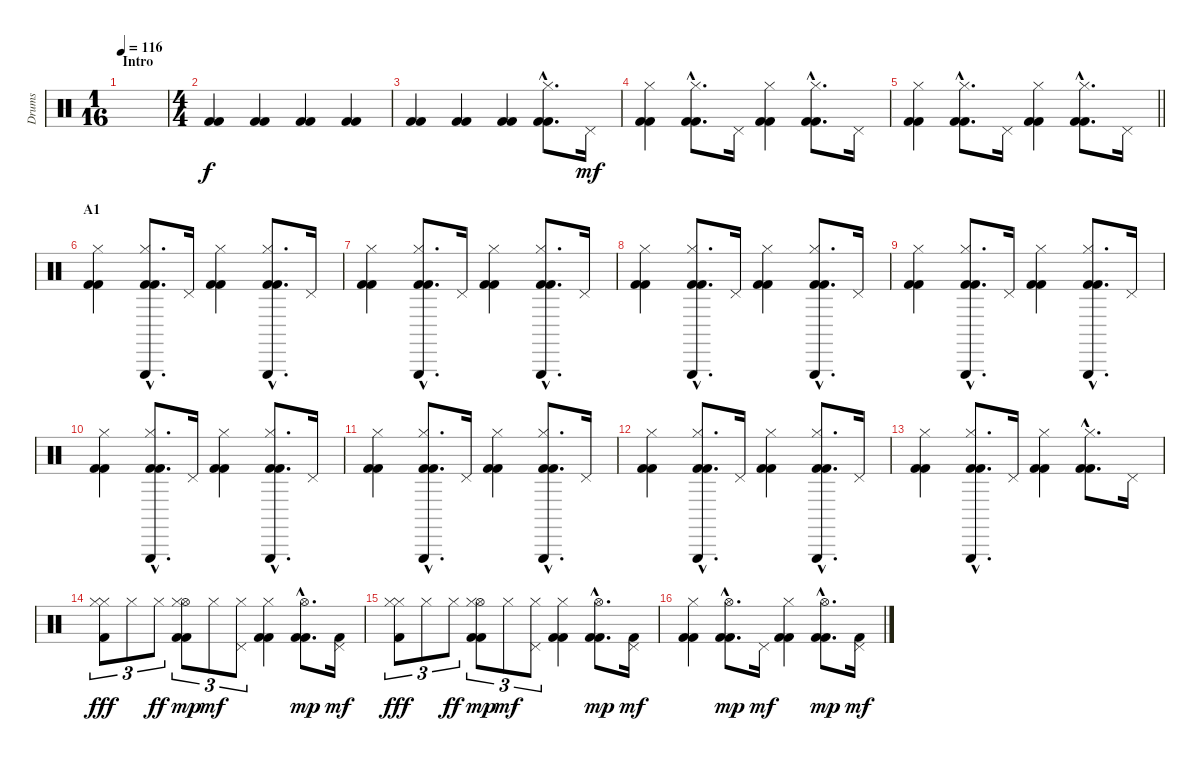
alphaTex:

\track ("Drums" "Drums") {instrument percussion}
\staff {score}
\articulation defaults
\ts (1 16)
\section ("" "Intro")
\tempo 116
\clef neutral
\ks aminor
|
\ts (4 4)
("Kick (hit) 2" "Kick (hit) 2").4 ("Kick (hit) 2" "Kick (hit) 2").4 ("Kick (hit) 2" "Kick (hit) 2").4 ("Kick (hit) 2" "Kick (hit) 2").4 |
("Kick (hit) 2" "Kick (hit) 2").4 ("Kick (hit) 2" "Kick (hit) 2").4 ("Kick (hit) 2" "Kick (hit) 2").4 ("Hi-Hat (closed)"{hac} "Kick (hit) 2"{hac} "Kick (hit) 2"{hac}).8{d} "Pedal Hi-Hat (hit)".16{dy mf} |
("Hi-Hat (closed)" "Kick (hit) 2" "Kick (hit) 2").4 ("Hi-Hat (closed)"{hac} "Kick (hit) 2"{hac} "Kick (hit) 2"{hac}).8{d} "Pedal Hi-Hat (hit)".16 ("Hi-Hat (closed)" "Kick (hit) 2" "Kick (hit) 2").4 ("Hi-Hat (closed)"{hac} "Kick (hit) 2"{hac} "Kick (hit) 2"{hac}).8{d} "Pedal Hi-Hat (hit)".16 |
\barLineRight lightlight
("Hi-Hat (closed)" "Kick (hit) 2" "Kick (hit) 2").4 ("Hi-Hat (closed)"{hac} "Kick (hit) 2"{hac} "Kick (hit) 2"{hac}).8{d} "Pedal Hi-Hat (hit)".16 ("Hi-Hat (closed)" "Kick (hit) 2" "Kick (hit) 2").4 ("Hi-Hat (closed)"{hac} "Kick (hit) 2"{hac} "Kick (hit) 2"{hac}).8{d} "Pedal Hi-Hat (hit)".16 |
\section ("" "A1")
("Hi-Hat (closed)" "Kick (hit) 2" "Kick (hit) 2").4 ("Hi-Hat (closed)"{hac} "Triangle (hit)"{hac} "Kick (hit) 2"{hac} "Kick (hit) 2"{hac}).8{d} "Pedal Hi-Hat (hit)".16 ("Hi-Hat (closed)" "Kick (hit) 2" "Kick (hit) 2").4 ("Hi-Hat (closed)"{hac} "Triangle (hit)"{hac} "Kick (hit) 2"{hac} "Kick (hit) 2"{hac}).8{d} "Pedal Hi-Hat (hit)".16 |
("Hi-Hat (closed)" "Kick (hit) 2" "Kick (hit) 2").4 ("Hi-Hat (closed)"{hac} "Triangle (hit)"{hac} "Kick (hit) 2"{hac} "Kick (hit) 2"{hac}).8{d} "Pedal Hi-Hat (hit)".16 ("Hi-Hat (closed)" "Kick (hit) 2" "Kick (hit) 2").4 ("Hi-Hat (closed)"{hac} "Triangle (hit)"{hac} "Kick (hit) 2"{hac} "Kick (hit) 2"{hac}).8{d} "Pedal Hi-Hat (hit)".16 |
("Hi-Hat (closed)" "Kick (hit) 2" "Kick (hit) 2").4 ("Hi-Hat (closed)"{hac} "Triangle (hit)"{hac} "Kick (hit) 2"{hac} "Kick (hit) 2"{hac}).8{d} "Pedal Hi-Hat (hit)".16 ("Hi-Hat (closed)" "Kick (hit) 2" "Kick (hit) 2").4 ("Hi-Hat (closed)"{hac} "Triangle (hit)"{hac} "Kick (hit) 2"{hac} "Kick (hit) 2"{hac}).8{d} "Pedal Hi-Hat (hit)".16 |
("Hi-Hat (closed)" "Kick (hit) 2" "Kick (hit) 2").4 ("Hi-Hat (closed)"{hac} "Triangle (hit)"{hac} "Kick (hit) 2"{hac} "Kick (hit) 2"{hac}).8{d} "Pedal Hi-Hat (hit)".16 ("Hi-Hat (closed)" "Kick (hit) 2" "Kick (hit) 2").4 ("Hi-Hat (closed)"{hac} "Triangle (hit)"{hac} "Kick (hit) 2"{hac} "Kick (hit) 2"{hac}).8{d} "Pedal Hi-Hat (hit)".16 |
("Hi-Hat (closed)" "Kick (hit) 2" "Kick (hit) 2").4 ("Hi-Hat (closed)"{hac} "Triangle (hit)"{hac} "Kick (hit) 2"{hac} "Kick (hit) 2"{hac}).8{d} "Pedal Hi-Hat (hit)".16 ("Hi-Hat (closed)" "Kick (hit) 2" "Kick (hit) 2").4 ("Hi-Hat (closed)"{hac} "Triangle (hit)"{hac} "Kick (hit) 2"{hac} "Kick (hit) 2"{hac}).8{d} "Pedal Hi-Hat (hit)".16 |
("Hi-Hat (closed)" "Kick (hit) 2" "Kick (hit) 2").4 ("Hi-Hat (closed)"{hac} "Triangle (hit)"{hac} "Kick (hit) 2"{hac} "Kick (hit) 2"{hac}).8{d} "Pedal Hi-Hat (hit)".16 ("Hi-Hat (closed)" "Kick (hit) 2" "Kick (hit) 2").4 ("Hi-Hat (closed)"{hac} "Triangle (hit)"{hac} "Kick (hit) 2"{hac} "Kick (hit) 2"{hac}).8{d} "Pedal Hi-Hat (hit)".16 |
("Hi-Hat (closed)" "Kick (hit) 2" "Kick (hit) 2").4 ("Hi-Hat (closed)"{hac} "Triangle (hit)"{hac} "Kick (hit) 2"{hac} "Kick (hit) 2"{hac}).8{d} "Pedal Hi-Hat (hit)".16 ("Hi-Hat (closed)" "Kick (hit) 2" "Kick (hit) 2").4 ("Hi-Hat (closed)"{hac} "Triangle (hit)"{hac} "Kick (hit) 2"{hac} "Kick (hit) 2"{hac}).8{d} "Pedal Hi-Hat (hit)".16 |
("Hi-Hat (closed)" "Kick (hit) 2" "Kick (hit) 2").4 ("Hi-Hat (closed)"{hac} "Triangle (hit)"{hac} "Kick (hit) 2"{hac} "Kick (hit) 2"{hac}).8{d} "Pedal Hi-Hat (hit)".16 ("Hi-Hat (closed)" "Kick (hit) 2" "Kick (hit) 2").4 ("Hi-Hat (closed)"{hac} "Kick (hit) 2"{hac} "Kick (hit) 2"{hac}).8{d} "Pedal Hi-Hat (hit)".16 |
("Hi-Hat (closed)" "Hi-Hat (closed)" "Kick (hit) 2").8{tu (3 2) dy fff} "Hi-Hat (closed)".8{tu (3 2)} "Hi-Hat (closed)".8{tu (3 2) dy ff} ("Hi-Hat (open)" "Hi-Hat (closed)" "Kick (hit) 2" "Kick (hit) 2").8{tu (3 2) dy mp} "Hi-Hat (closed)".8{tu (3 2) dy mf} ("Pedal Hi-Hat (hit)" "Hi-Hat (closed)").8{tu (3 2)} ("Hi-Hat (closed)" "Kick (hit) 2" "Kick (hit) 2").4 ("Hi-Hat (open)"{hac} "Kick (hit) 2"{hac} "Kick (hit) 2"{hac}).8{d dy mp} ("Pedal Hi-Hat (hit)" "Kick (hit) 2").16{dy mf} |
("Hi-Hat (closed)" "Hi-Hat (closed)" "Kick (hit) 2").8{tu (3 2) dy fff} "Hi-Hat (closed)".8{tu (3 2)} "Hi-Hat (closed)".8{tu (3 2) dy ff} ("Hi-Hat (open)" "Hi-Hat (closed)" "Kick (hit) 2" "Kick (hit) 2").8{tu (3 2) dy mp} "Hi-Hat (closed)".8{tu (3 2) dy mf} ("Pedal Hi-Hat (hit)" "Hi-Hat (closed)").8{tu (3 2)} ("Hi-Hat (closed)" "Kick (hit) 2" "Kick (hit) 2").4 ("Hi-Hat (open)"{hac} "Kick (hit) 2"{hac} "Kick (hit) 2"{hac}).8{d dy mp} ("Pedal Hi-Hat (hit)" "Kick (hit) 2").16{dy mf} |
("Hi-Hat (closed)" "Kick (hit) 2" "Kick (hit) 2").4 ("Hi-Hat (open)"{hac} "Kick (hit) 2"{hac} "Kick (hit) 2"{hac}).8{d dy mp} "Pedal Hi-Hat (hit)".16{dy mf} ("Hi-Hat (closed)" "Kick (hit) 2" "Kick (hit) 2").4 ("Hi-Hat (open)"{hac} "Kick (hit) 2"{hac} "Kick (hit) 2"{hac}).8{d dy mp} ("Pedal Hi-Hat (hit)" "Kick (hit) 2").16{dy mf}
